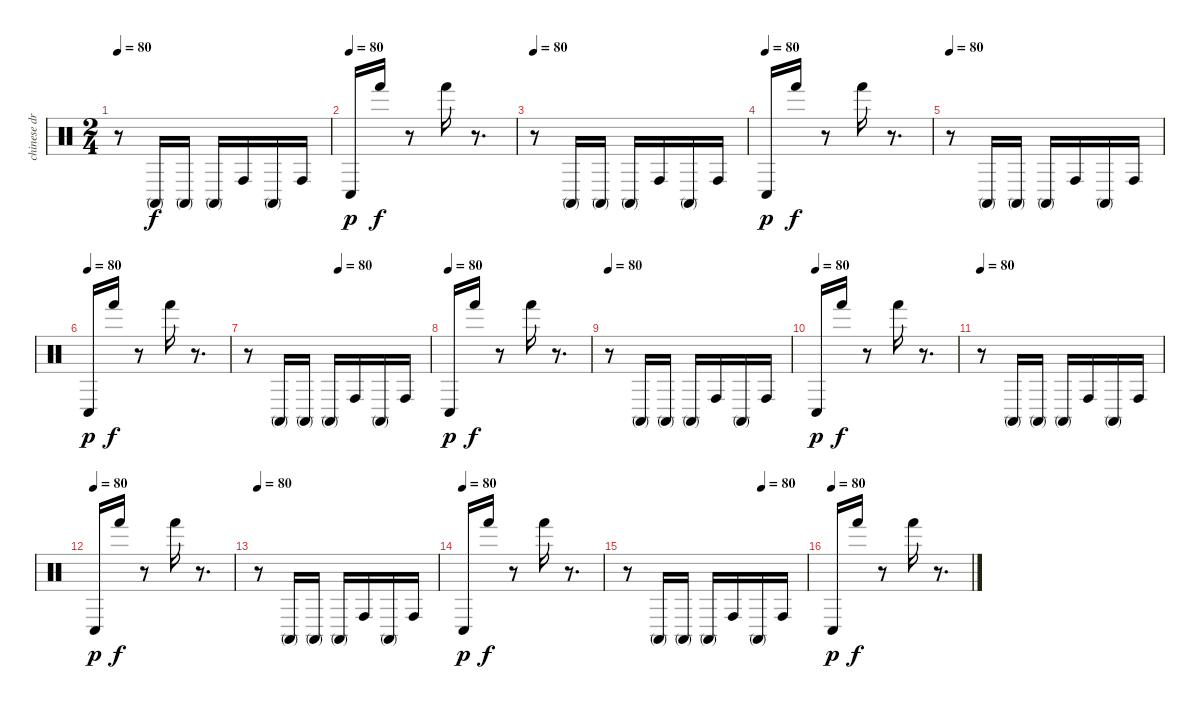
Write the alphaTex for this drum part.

\track ("chinese drums" "chinese dr") {instrument percussion}
\staff {score}
\articulation defaults
\ts (2 4)
\tempo 80
\clef neutral
\ks c
r.8{dy f} "Conga high (mute)".16 "Conga high (mute)".16 "Conga high (mute)".16 "Conga high (hit)".16 "Conga high (mute)".16 "Conga high (hit)".16 |
\tempo (80)
"Conga low (hit)".16{dy p} "Hand (hit)".16{dy f} r.8 "Hand (hit)".16 r.8{d} |
\tempo 80
r.8 "Conga high (mute)".16 "Conga high (mute)".16 "Conga high (mute)".16 "Conga high (hit)".16 "Conga high (mute)".16 "Conga high (hit)".16 |
\tempo (80)
"Conga low (hit)".16{dy p} "Hand (hit)".16{dy f} r.8 "Hand (hit)".16 r.8{d} |
\tempo 80
r.8 "Conga high (mute)".16 "Conga high (mute)".16 "Conga high (mute)".16 "Conga high (hit)".16 "Conga high (mute)".16 "Conga high (hit)".16 |
\tempo (80)
"Conga low (hit)".16{dy p} "Hand (hit)".16{dy f} r.8 "Hand (hit)".16 r.8{d} |
\tempo (80 0.5)
r.8 "Conga high (mute)".16 "Conga high (mute)".16 "Conga high (mute)".16 "Conga high (hit)".16 "Conga high (mute)".16 "Conga high (hit)".16 |
\tempo (80)
"Conga low (hit)".16{dy p} "Hand (hit)".16{dy f} r.8 "Hand (hit)".16 r.8{d} |
\tempo 80
r.8 "Conga high (mute)".16 "Conga high (mute)".16 "Conga high (mute)".16 "Conga high (hit)".16 "Conga high (mute)".16 "Conga high (hit)".16 |
\tempo (80)
"Conga low (hit)".16{dy p} "Hand (hit)".16{dy f} r.8 "Hand (hit)".16 r.8{d} |
\tempo 80
r.8 "Conga high (mute)".16 "Conga high (mute)".16 "Conga high (mute)".16 "Conga high (hit)".16 "Conga high (mute)".16 "Conga high (hit)".16 |
\tempo (80)
"Conga low (hit)".16{dy p} "Hand (hit)".16{dy f} r.8 "Hand (hit)".16 r.8{d} |
\tempo 80
r.8 "Conga high (mute)".16 "Conga high (mute)".16 "Conga high (mute)".16 "Conga high (hit)".16 "Conga high (mute)".16 "Conga high (hit)".16 |
\tempo (80)
"Conga low (hit)".16{dy p} "Hand (hit)".16{dy f} r.8 "Hand (hit)".16 r.8{d} |
\tempo (80 0.75)
r.8 "Conga high (mute)".16 "Conga high (mute)".16 "Conga high (mute)".16 "Conga high (hit)".16 "Conga high (mute)".16 "Conga high (hit)".16 |
\tempo (80)
"Conga low (hit)".16{dy p} "Hand (hit)".16{dy f} r.8 "Hand (hit)".16 r.8{d}
